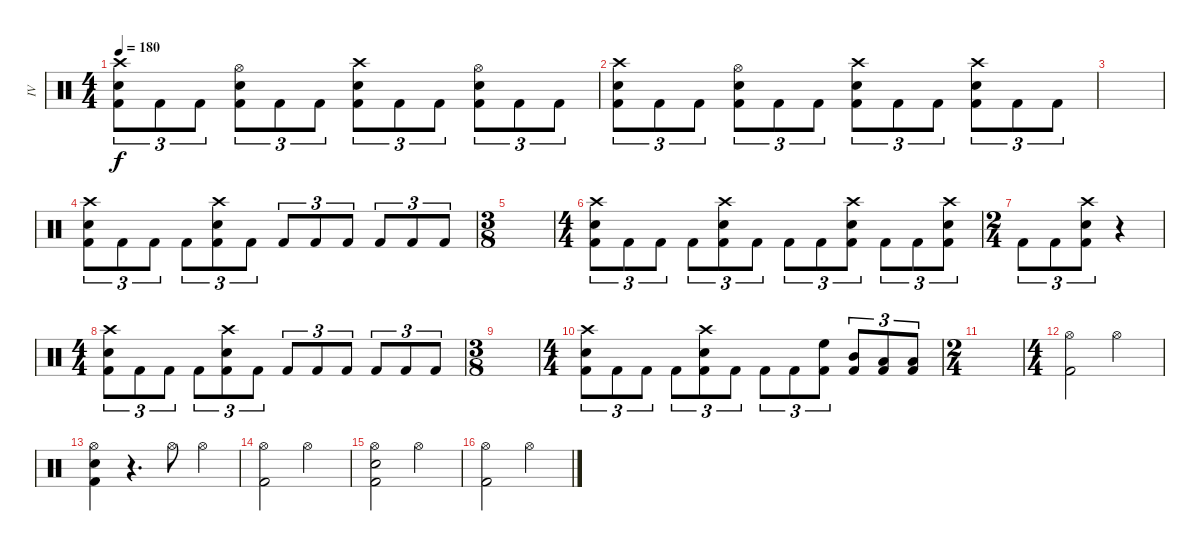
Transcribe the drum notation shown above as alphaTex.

\track ("IV" "IV") {instrument percussion}
\staff {score}
\articulation defaults
\ts (4 4)
\tempo 180
\clef neutral
\ks c
("Crash high (hit)" "Snare (hit) 2" "Kick (hit) 2").8{tu (3 2) dy f} "Kick (hit) 2".8{tu (3 2)} "Kick (hit) 2".8{tu (3 2)} ("Hi-Hat (open)" "Snare (hit) 2" "Kick (hit) 2").8{tu (3 2)} "Kick (hit) 2".8{tu (3 2)} "Kick (hit) 2".8{tu (3 2)} ("Crash high (hit)" "Snare (hit) 2" "Kick (hit) 2").8{tu (3 2)} "Kick (hit) 2".8{tu (3 2)} "Kick (hit) 2".8{tu (3 2)} ("Hi-Hat (open)" "Snare (hit) 2" "Kick (hit) 2").8{tu (3 2)} "Kick (hit) 2".8{tu (3 2)} "Kick (hit) 2".8{tu (3 2)} |
("Crash high (hit)" "Snare (hit) 2" "Kick (hit) 2").8{tu (3 2)} "Kick (hit) 2".8{tu (3 2)} "Kick (hit) 2".8{tu (3 2)} ("Hi-Hat (open)" "Snare (hit) 2" "Kick (hit) 2").8{tu (3 2)} "Kick (hit) 2".8{tu (3 2)} "Kick (hit) 2".8{tu (3 2)} ("Crash high (hit)" "Snare (hit) 2" "Kick (hit) 2").8{tu (3 2)} "Kick (hit) 2".8{tu (3 2)} "Kick (hit) 2".8{tu (3 2)} ("Crash high (hit)" "Snare (hit) 2" "Kick (hit) 2").8{tu (3 2)} "Kick (hit) 2".8{tu (3 2)} "Kick (hit) 2".8{tu (3 2)} |
|
("Crash high (hit)" "Snare (hit) 2" "Kick (hit) 2").8{tu (3 2)} "Kick (hit) 2".8{tu (3 2)} "Kick (hit) 2".8{tu (3 2)} "Kick (hit) 2".8{tu (3 2)} ("Crash high (hit)" "Snare (hit) 2" "Kick (hit) 2").8{tu (3 2)} "Kick (hit) 2".8{tu (3 2)} "Kick (hit) 2".8{tu (3 2)} "Kick (hit) 2".8{tu (3 2)} "Kick (hit) 2".8{tu (3 2)} "Kick (hit) 2".8{tu (3 2)} "Kick (hit) 2".8{tu (3 2)} "Kick (hit) 2".8{tu (3 2)} |
\ts (3 8)
|
\ts (4 4)
("Crash high (hit)" "Snare (hit) 2" "Kick (hit) 2").8{tu (3 2)} "Kick (hit) 2".8{tu (3 2)} "Kick (hit) 2".8{tu (3 2)} "Kick (hit) 2".8{tu (3 2)} ("Crash high (hit)" "Snare (hit) 2" "Kick (hit) 2").8{tu (3 2)} "Kick (hit) 2".8{tu (3 2)} "Kick (hit) 2".8{tu (3 2)} "Kick (hit) 2".8{tu (3 2)} ("Crash high (hit)" "Snare (hit) 2" "Kick (hit) 2").8{tu (3 2)} "Kick (hit) 2".8{tu (3 2)} "Kick (hit) 2".8{tu (3 2)} ("Crash high (hit)" "Snare (hit) 2" "Kick (hit) 2").8{tu (3 2)} |
\ts (2 4)
"Kick (hit) 2".8{tu (3 2)} "Kick (hit) 2".8{tu (3 2)} ("Crash high (hit)" "Snare (hit) 2" "Kick (hit) 2").8{tu (3 2)} r.4 |
\ts (4 4)
("Crash high (hit)" "Snare (hit) 2" "Kick (hit) 2").8{tu (3 2)} "Kick (hit) 2".8{tu (3 2)} "Kick (hit) 2".8{tu (3 2)} "Kick (hit) 2".8{tu (3 2)} ("Crash high (hit)" "Snare (hit) 2" "Kick (hit) 2").8{tu (3 2)} "Kick (hit) 2".8{tu (3 2)} "Kick (hit) 2".8{tu (3 2)} "Kick (hit) 2".8{tu (3 2)} "Kick (hit) 2".8{tu (3 2)} "Kick (hit) 2".8{tu (3 2)} "Kick (hit) 2".8{tu (3 2)} "Kick (hit) 2".8{tu (3 2)} |
\ts (3 8)
|
\ts (4 4)
("Crash high (hit)" "Snare (hit) 2" "Kick (hit) 2").8{tu (3 2)} "Kick (hit) 2".8{tu (3 2)} "Kick (hit) 2".8{tu (3 2)} "Kick (hit) 2".8{tu (3 2)} ("Crash high (hit)" "Snare (hit) 2" "Kick (hit) 2").8{tu (3 2)} "Kick (hit) 2".8{tu (3 2)} "Kick (hit) 2".8{tu (3 2)} "Kick (hit) 2".8{tu (3 2)} ("High Floor Tom (hit)" "Kick (hit) 2").8{tu (3 2)} ("Mid Tom (hit)" "Kick (hit) 2").8{tu (3 2)} ("Low Tom (hit)" "Kick (hit) 2").8{tu (3 2)} ("Low Tom (hit)" "Kick (hit) 2").8{tu (3 2)} |
\ts (2 4)
|
\ts (4 4)
("Hi-Hat (open)" "Kick (hit) 2").2 "Hi-Hat (open)".2 |
("Hi-Hat (open)" "Snare (hit) 2" "Kick (hit) 2").4 r.4{d} "Hi-Hat (open)".8 "Hi-Hat (open)".4 |
("Hi-Hat (open)" "Kick (hit) 2").2 "Hi-Hat (open)".2 |
("Hi-Hat (open)" "Snare (hit) 2" "Kick (hit) 2").2 "Hi-Hat (open)".2 |
("Hi-Hat (open)" "Kick (hit) 2").2 "Hi-Hat (open)".2
